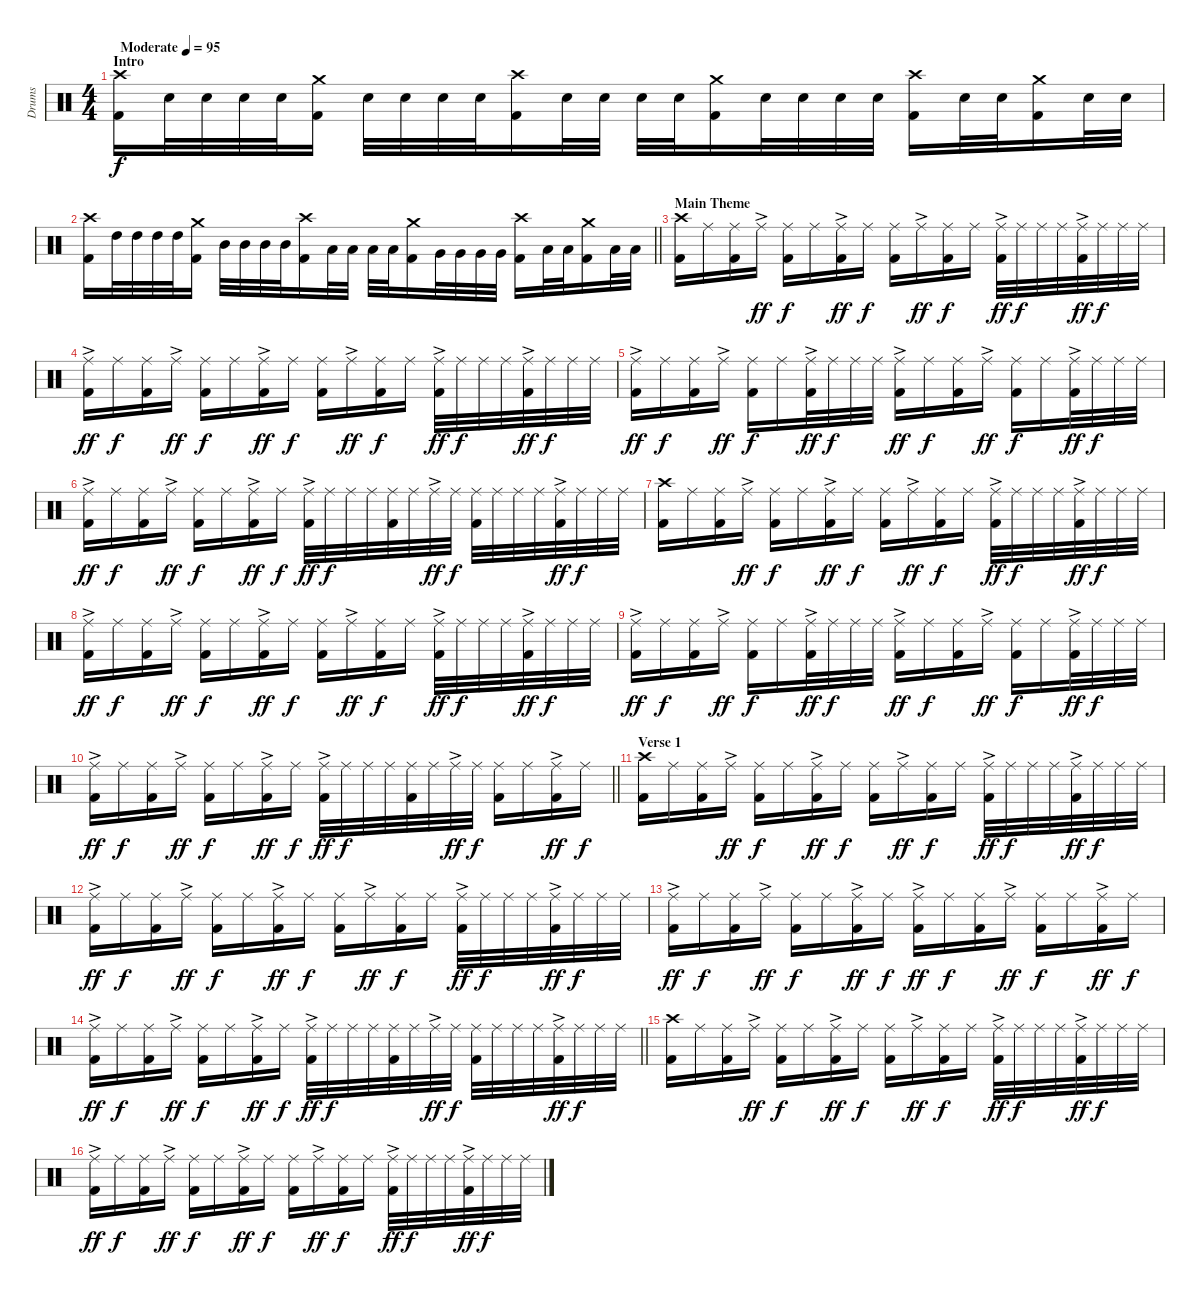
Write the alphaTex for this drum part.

\track ("Drums" "Drums") {instrument percussion}
\staff {score}
\articulation defaults
\ts (4 4)
\section ("" "Intro")
\tempo (95 "Moderate")
\clef neutral
\ks c
("Crash high (hit)" "Kick (hit) 2").16{dy f} "Snare (hit) 2".32 "Snare (hit) 2".32 "Snare (hit) 2".32 "Snare (hit) 2".32 ("Crash medium (hit)" "Kick (hit) 2").16 "Snare (hit) 2".32 "Snare (hit) 2".32 "Snare (hit) 2".32 "Snare (hit) 2".32 ("Crash high (hit)" "Kick (hit) 2").16 "Snare (hit) 2".32 "Snare (hit) 2".32 "Snare (hit) 2".32 "Snare (hit) 2".32 ("Crash medium (hit)" "Kick (hit) 2").16 "Snare (hit) 2".32 "Snare (hit) 2".32 "Snare (hit) 2".32 "Snare (hit) 2".32 ("Crash high (hit)" "Kick (hit) 2").16 "Snare (hit) 2".32 "Snare (hit) 2".32 ("Crash medium (hit)" "Kick (hit) 2").16 "Snare (hit) 2".32 "Snare (hit) 2".32 |
\barLineRight lightlight
("Crash high (hit)" "Kick (hit) 2").16 "High Tom (hit)".32 "High Tom (hit)".32 "High Tom (hit)".32 "High Tom (hit)".32 ("Crash medium (hit)" "Kick (hit) 2").16 "Mid Tom (hit)".32 "Mid Tom (hit)".32 "Mid Tom (hit)".32 "Mid Tom (hit)".32 ("Crash high (hit)" "Kick (hit) 2").16 "Low Tom (hit)".32 "Low Tom (hit)".32 "Low Tom (hit)".32 "Low Tom (hit)".32 ("Crash medium (hit)" "Kick (hit) 2").16 "Very Low Tom (hit)".32 "Very Low Tom (hit)".32 "Very Low Tom (hit)".32 "Very Low Tom (hit)".32 ("Crash high (hit)" "Kick (hit) 2").16 "Low Floor Tom (hit)".32 "Low Floor Tom (hit)".32 ("Crash medium (hit)" "Kick (hit) 2").16 "Low Floor Tom (hit)".32 "Low Floor Tom (hit)".32 |
\section ("" "Main Theme")
("Crash high (hit)" "Kick (hit) 2").16 "Ride (middle)".16 ("Ride (middle)" "Kick (hit) 2").16 "Ride (middle)"{ac}.16{dy ff} ("Ride (middle)" "Kick (hit) 2").16{dy f} "Ride (middle)".16 ("Ride (middle)"{ac} "Kick (hit) 2").16{dy ff} "Ride (middle)".16{dy f} ("Ride (middle)" "Kick (hit) 2").16 "Ride (middle)"{ac}.16{dy ff} ("Ride (middle)" "Kick (hit) 2").16{dy f} "Ride (middle)".16 ("Ride (middle)"{ac} "Kick (hit) 2").32{dy ff} "Ride (middle)".32{dy f} "Ride (middle)".32 "Ride (middle)".32 ("Ride (middle)"{ac} "Kick (hit) 2").32{dy ff} "Ride (middle)".32{dy f} "Ride (middle)".32 "Ride (middle)".32 |
("Ride (middle)"{ac} "Kick (hit) 2").16{dy ff} "Ride (middle)".16{dy f} ("Ride (middle)" "Kick (hit) 2").16 "Ride (middle)"{ac}.16{dy ff} ("Ride (middle)" "Kick (hit) 2").16{dy f} "Ride (middle)".16 ("Ride (middle)"{ac} "Kick (hit) 2").16{dy ff} "Ride (middle)".16{dy f} ("Ride (middle)" "Kick (hit) 2").16 "Ride (middle)"{ac}.16{dy ff} ("Ride (middle)" "Kick (hit) 2").16{dy f} "Ride (middle)".16 ("Ride (middle)"{ac} "Kick (hit) 2").32{dy ff} "Ride (middle)".32{dy f} "Ride (middle)".32 "Ride (middle)".32 ("Ride (middle)"{ac} "Kick (hit) 2").32{dy ff} "Ride (middle)".32{dy f} "Ride (middle)".32 "Ride (middle)".32 |
("Ride (middle)"{ac} "Kick (hit) 2").16{dy ff} "Ride (middle)".16{dy f} ("Ride (middle)" "Kick (hit) 2").16 "Ride (middle)"{ac}.16{dy ff} ("Ride (middle)" "Kick (hit) 2").16{dy f} "Ride (middle)".16 ("Ride (middle)"{ac} "Kick (hit) 2").32{dy ff} "Ride (middle)".32{dy f} "Ride (middle)".32 "Ride (middle)".32 ("Ride (middle)"{ac} "Kick (hit) 2").16{dy ff} "Ride (middle)".16{dy f} ("Ride (middle)" "Kick (hit) 2").16 "Ride (middle)"{ac}.16{dy ff} ("Ride (middle)" "Kick (hit) 2").16{dy f} "Ride (middle)".16 ("Ride (middle)"{ac} "Kick (hit) 2").32{dy ff} "Ride (middle)".32{dy f} "Ride (middle)".32 "Ride (middle)".32 |
("Ride (middle)"{ac} "Kick (hit) 2").16{dy ff} "Ride (middle)".16{dy f} ("Ride (middle)" "Kick (hit) 2").16 "Ride (middle)"{ac}.16{dy ff} ("Ride (middle)" "Kick (hit) 2").16{dy f} "Ride (middle)".16 ("Ride (middle)"{ac} "Kick (hit) 2").16{dy ff} "Ride (middle)".16{dy f} ("Ride (middle)"{ac} "Kick (hit) 2").32{dy ff} "Ride (middle)".32{dy f} "Ride (middle)".32 "Ride (middle)".32 ("Ride (middle)" "Kick (hit) 2").32 "Ride (middle)".32 "Ride (middle)"{ac}.32{dy ff} "Ride (middle)".32{dy f} ("Ride (middle)" "Kick (hit) 2").32 "Ride (middle)".32 "Ride (middle)".32 "Ride (middle)".32 ("Ride (middle)"{ac} "Kick (hit) 2").32{dy ff} "Ride (middle)".32{dy f} "Ride (middle)".32 "Ride (middle)".32 |
("Crash high (hit)" "Kick (hit) 2").16 "Ride (middle)".16 ("Ride (middle)" "Kick (hit) 2").16 "Ride (middle)"{ac}.16{dy ff} ("Ride (middle)" "Kick (hit) 2").16{dy f} "Ride (middle)".16 ("Ride (middle)"{ac} "Kick (hit) 2").16{dy ff} "Ride (middle)".16{dy f} ("Ride (middle)" "Kick (hit) 2").16 "Ride (middle)"{ac}.16{dy ff} ("Ride (middle)" "Kick (hit) 2").16{dy f} "Ride (middle)".16 ("Ride (middle)"{ac} "Kick (hit) 2").32{dy ff} "Ride (middle)".32{dy f} "Ride (middle)".32 "Ride (middle)".32 ("Ride (middle)"{ac} "Kick (hit) 2").32{dy ff} "Ride (middle)".32{dy f} "Ride (middle)".32 "Ride (middle)".32 |
("Ride (middle)"{ac} "Kick (hit) 2").16{dy ff} "Ride (middle)".16{dy f} ("Ride (middle)" "Kick (hit) 2").16 "Ride (middle)"{ac}.16{dy ff} ("Ride (middle)" "Kick (hit) 2").16{dy f} "Ride (middle)".16 ("Ride (middle)"{ac} "Kick (hit) 2").16{dy ff} "Ride (middle)".16{dy f} ("Ride (middle)" "Kick (hit) 2").16 "Ride (middle)"{ac}.16{dy ff} ("Ride (middle)" "Kick (hit) 2").16{dy f} "Ride (middle)".16 ("Ride (middle)"{ac} "Kick (hit) 2").32{dy ff} "Ride (middle)".32{dy f} "Ride (middle)".32 "Ride (middle)".32 ("Ride (middle)"{ac} "Kick (hit) 2").32{dy ff} "Ride (middle)".32{dy f} "Ride (middle)".32 "Ride (middle)".32 |
("Ride (middle)"{ac} "Kick (hit) 2").16{dy ff} "Ride (middle)".16{dy f} ("Ride (middle)" "Kick (hit) 2").16 "Ride (middle)"{ac}.16{dy ff} ("Ride (middle)" "Kick (hit) 2").16{dy f} "Ride (middle)".16 ("Ride (middle)"{ac} "Kick (hit) 2").32{dy ff} "Ride (middle)".32{dy f} "Ride (middle)".32 "Ride (middle)".32 ("Ride (middle)"{ac} "Kick (hit) 2").16{dy ff} "Ride (middle)".16{dy f} ("Ride (middle)" "Kick (hit) 2").16 "Ride (middle)"{ac}.16{dy ff} ("Ride (middle)" "Kick (hit) 2").16{dy f} "Ride (middle)".16 ("Ride (middle)"{ac} "Kick (hit) 2").32{dy ff} "Ride (middle)".32{dy f} "Ride (middle)".32 "Ride (middle)".32 |
\barLineRight lightlight
("Ride (middle)"{ac} "Kick (hit) 2").16{dy ff} "Ride (middle)".16{dy f} ("Ride (middle)" "Kick (hit) 2").16 "Ride (middle)"{ac}.16{dy ff} ("Ride (middle)" "Kick (hit) 2").16{dy f} "Ride (middle)".16 ("Ride (middle)"{ac} "Kick (hit) 2").16{dy ff} "Ride (middle)".16{dy f} ("Ride (middle)"{ac} "Kick (hit) 2").32{dy ff} "Ride (middle)".32{dy f} "Ride (middle)".32 "Ride (middle)".32 ("Ride (middle)" "Kick (hit) 2").32 "Ride (middle)".32 "Ride (middle)"{ac}.32{dy ff} "Ride (middle)".32{dy f} ("Ride (middle)" "Kick (hit) 2").16 "Ride (middle)".16 ("Ride (middle)"{ac} "Kick (hit) 2").16{dy ff} "Ride (middle)".16{dy f} |
\section ("" "Verse 1")
("Crash high (hit)" "Kick (hit) 2").16 "Ride (middle)".16 ("Ride (middle)" "Kick (hit) 2").16 "Ride (middle)"{ac}.16{dy ff} ("Ride (middle)" "Kick (hit) 2").16{dy f} "Ride (middle)".16 ("Ride (middle)"{ac} "Kick (hit) 2").16{dy ff} "Ride (middle)".16{dy f} ("Ride (middle)" "Kick (hit) 2").16 "Ride (middle)"{ac}.16{dy ff} ("Ride (middle)" "Kick (hit) 2").16{dy f} "Ride (middle)".16 ("Ride (middle)"{ac} "Kick (hit) 2").32{dy ff} "Ride (middle)".32{dy f} "Ride (middle)".32 "Ride (middle)".32 ("Ride (middle)"{ac} "Kick (hit) 2").32{dy ff} "Ride (middle)".32{dy f} "Ride (middle)".32 "Ride (middle)".32 |
("Ride (middle)"{ac} "Kick (hit) 2").16{dy ff} "Ride (middle)".16{dy f} ("Ride (middle)" "Kick (hit) 2").16 "Ride (middle)"{ac}.16{dy ff} ("Ride (middle)" "Kick (hit) 2").16{dy f} "Ride (middle)".16 ("Ride (middle)"{ac} "Kick (hit) 2").16{dy ff} "Ride (middle)".16{dy f} ("Ride (middle)" "Kick (hit) 2").16 "Ride (middle)"{ac}.16{dy ff} ("Ride (middle)" "Kick (hit) 2").16{dy f} "Ride (middle)".16 ("Ride (middle)"{ac} "Kick (hit) 2").32{dy ff} "Ride (middle)".32{dy f} "Ride (middle)".32 "Ride (middle)".32 ("Ride (middle)"{ac} "Kick (hit) 2").32{dy ff} "Ride (middle)".32{dy f} "Ride (middle)".32 "Ride (middle)".32 |
("Ride (middle)"{ac} "Kick (hit) 2").16{dy ff} "Ride (middle)".16{dy f} ("Ride (middle)" "Kick (hit) 2").16 "Ride (middle)"{ac}.16{dy ff} ("Ride (middle)" "Kick (hit) 2").16{dy f} "Ride (middle)".16 ("Ride (middle)"{ac} "Kick (hit) 2").16{dy ff} "Ride (middle)".16{dy f} ("Ride (middle)"{ac} "Kick (hit) 2").16{dy ff} "Ride (middle)".16{dy f} ("Ride (middle)" "Kick (hit) 2").16 "Ride (middle)"{ac}.16{dy ff} ("Ride (middle)" "Kick (hit) 2").16{dy f} "Ride (middle)".16 ("Ride (middle)"{ac} "Kick (hit) 2").16{dy ff} "Ride (middle)".16{dy f} |
\barLineRight lightlight
("Ride (middle)"{ac} "Kick (hit) 2").16{dy ff} "Ride (middle)".16{dy f} ("Ride (middle)" "Kick (hit) 2").16 "Ride (middle)"{ac}.16{dy ff} ("Ride (middle)" "Kick (hit) 2").16{dy f} "Ride (middle)".16 ("Ride (middle)"{ac} "Kick (hit) 2").16{dy ff} "Ride (middle)".16{dy f} ("Ride (middle)"{ac} "Kick (hit) 2").32{dy ff} "Ride (middle)".32{dy f} "Ride (middle)".32 "Ride (middle)".32 ("Ride (middle)" "Kick (hit) 2").32 "Ride (middle)".32 "Ride (middle)"{ac}.32{dy ff} "Ride (middle)".32{dy f} ("Ride (middle)" "Kick (hit) 2").32 "Ride (middle)".32 "Ride (middle)".32 "Ride (middle)".32 ("Ride (middle)"{ac} "Kick (hit) 2").32{dy ff} "Ride (middle)".32{dy f} "Ride (middle)".32 "Ride (middle)".32 |
("Crash high (hit)" "Kick (hit) 2").16 "Ride (middle)".16 ("Ride (middle)" "Kick (hit) 2").16 "Ride (middle)"{ac}.16{dy ff} ("Ride (middle)" "Kick (hit) 2").16{dy f} "Ride (middle)".16 ("Ride (middle)"{ac} "Kick (hit) 2").16{dy ff} "Ride (middle)".16{dy f} ("Ride (middle)" "Kick (hit) 2").16 "Ride (middle)"{ac}.16{dy ff} ("Ride (middle)" "Kick (hit) 2").16{dy f} "Ride (middle)".16 ("Ride (middle)"{ac} "Kick (hit) 2").32{dy ff} "Ride (middle)".32{dy f} "Ride (middle)".32 "Ride (middle)".32 ("Ride (middle)"{ac} "Kick (hit) 2").32{dy ff} "Ride (middle)".32{dy f} "Ride (middle)".32 "Ride (middle)".32 |
("Ride (middle)"{ac} "Kick (hit) 2").16{dy ff} "Ride (middle)".16{dy f} ("Ride (middle)" "Kick (hit) 2").16 "Ride (middle)"{ac}.16{dy ff} ("Ride (middle)" "Kick (hit) 2").16{dy f} "Ride (middle)".16 ("Ride (middle)"{ac} "Kick (hit) 2").16{dy ff} "Ride (middle)".16{dy f} ("Ride (middle)" "Kick (hit) 2").16 "Ride (middle)"{ac}.16{dy ff} ("Ride (middle)" "Kick (hit) 2").16{dy f} "Ride (middle)".16 ("Ride (middle)"{ac} "Kick (hit) 2").32{dy ff} "Ride (middle)".32{dy f} "Ride (middle)".32 "Ride (middle)".32 ("Ride (middle)"{ac} "Kick (hit) 2").32{dy ff} "Ride (middle)".32{dy f} "Ride (middle)".32 "Ride (middle)".32
